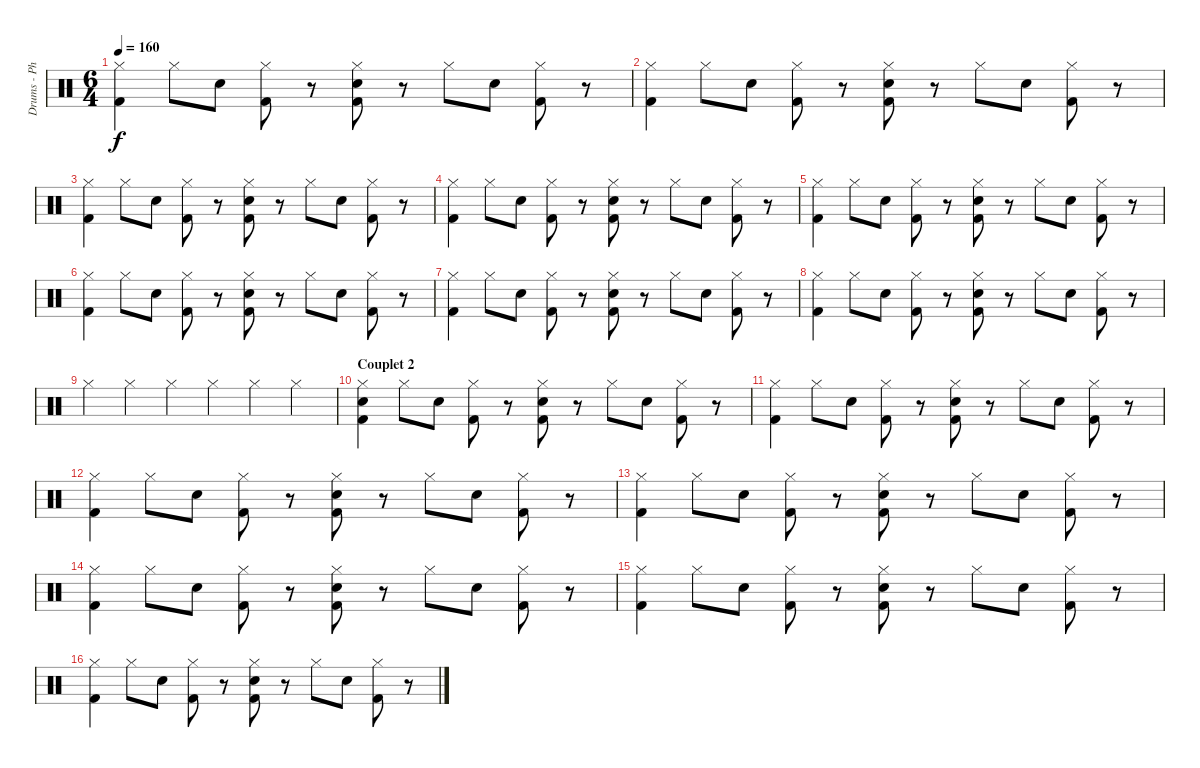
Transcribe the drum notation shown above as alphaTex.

\track ("Drums - Phil Selway" "Drums - Ph") {instrument percussion}
\staff {score}
\articulation defaults
\ts (6 4)
\tempo 160
\clef neutral
\ks c
("Hi-Hat (closed)" "Kick (hit) 2").4{dy f} "Hi-Hat (closed)".8 "Snare (hit) 2".8 ("Hi-Hat (closed)" "Kick (hit) 2").8 r.8 ("Hi-Hat (closed)" "Snare (hit) 2" "Kick (hit) 2").8 r.8 "Hi-Hat (closed)".8 "Snare (hit) 2".8 ("Hi-Hat (closed)" "Kick (hit) 2").8 r.8 |
("Hi-Hat (closed)" "Kick (hit) 2").4 "Hi-Hat (closed)".8 "Snare (hit) 2".8 ("Hi-Hat (closed)" "Kick (hit) 2").8 r.8 ("Hi-Hat (closed)" "Snare (hit) 2" "Kick (hit) 2").8 r.8 "Hi-Hat (closed)".8 "Snare (hit) 2".8 ("Hi-Hat (closed)" "Kick (hit) 2").8 r.8 |
("Hi-Hat (closed)" "Kick (hit) 2").4 "Hi-Hat (closed)".8 "Snare (hit) 2".8 ("Hi-Hat (closed)" "Kick (hit) 2").8 r.8 ("Hi-Hat (closed)" "Snare (hit) 2" "Kick (hit) 2").8 r.8 "Hi-Hat (closed)".8 "Snare (hit) 2".8 ("Hi-Hat (closed)" "Kick (hit) 2").8 r.8 |
("Hi-Hat (closed)" "Kick (hit) 2").4 "Hi-Hat (closed)".8 "Snare (hit) 2".8 ("Hi-Hat (closed)" "Kick (hit) 2").8 r.8 ("Hi-Hat (closed)" "Snare (hit) 2" "Kick (hit) 2").8 r.8 "Hi-Hat (closed)".8 "Snare (hit) 2".8 ("Hi-Hat (closed)" "Kick (hit) 2").8 r.8 |
("Hi-Hat (closed)" "Kick (hit) 2").4 "Hi-Hat (closed)".8 "Snare (hit) 2".8 ("Hi-Hat (closed)" "Kick (hit) 2").8 r.8 ("Hi-Hat (closed)" "Snare (hit) 2" "Kick (hit) 2").8 r.8 "Hi-Hat (closed)".8 "Snare (hit) 2".8 ("Hi-Hat (closed)" "Kick (hit) 2").8 r.8 |
("Hi-Hat (closed)" "Kick (hit) 2").4 "Hi-Hat (closed)".8 "Snare (hit) 2".8 ("Hi-Hat (closed)" "Kick (hit) 2").8 r.8 ("Hi-Hat (closed)" "Snare (hit) 2" "Kick (hit) 2").8 r.8 "Hi-Hat (closed)".8 "Snare (hit) 2".8 ("Hi-Hat (closed)" "Kick (hit) 2").8 r.8 |
("Hi-Hat (closed)" "Kick (hit) 2").4 "Hi-Hat (closed)".8 "Snare (hit) 2".8 ("Hi-Hat (closed)" "Kick (hit) 2").8 r.8 ("Hi-Hat (closed)" "Snare (hit) 2" "Kick (hit) 2").8 r.8 "Hi-Hat (closed)".8 "Snare (hit) 2".8 ("Hi-Hat (closed)" "Kick (hit) 2").8 r.8 |
("Hi-Hat (closed)" "Kick (hit) 2").4 "Hi-Hat (closed)".8 "Snare (hit) 2".8 ("Hi-Hat (closed)" "Kick (hit) 2").8 r.8 ("Hi-Hat (closed)" "Snare (hit) 2" "Kick (hit) 2").8 r.8 "Hi-Hat (closed)".8 "Snare (hit) 2".8 ("Hi-Hat (closed)" "Kick (hit) 2").8 r.8 |
"Hi-Hat (closed)".4 "Hi-Hat (closed)".4 "Hi-Hat (closed)".4 "Hi-Hat (closed)".4 "Hi-Hat (closed)".4 "Hi-Hat (closed)".4 |
\section ("" "Couplet 2")
("Hi-Hat (closed)" "Snare (hit) 2" "Kick (hit) 2").4 "Hi-Hat (closed)".8 "Snare (hit) 2".8 ("Hi-Hat (closed)" "Kick (hit) 2").8 r.8 ("Hi-Hat (closed)" "Snare (hit) 2" "Kick (hit) 2").8 r.8 "Hi-Hat (closed)".8 "Snare (hit) 2".8 ("Hi-Hat (closed)" "Kick (hit) 2").8 r.8 |
("Hi-Hat (closed)" "Kick (hit) 2").4 "Hi-Hat (closed)".8 "Snare (hit) 2".8 ("Hi-Hat (closed)" "Kick (hit) 2").8 r.8 ("Hi-Hat (closed)" "Snare (hit) 2" "Kick (hit) 2").8 r.8 "Hi-Hat (closed)".8 "Snare (hit) 2".8 ("Hi-Hat (closed)" "Kick (hit) 2").8 r.8 |
("Hi-Hat (closed)" "Kick (hit) 2").4 "Hi-Hat (closed)".8 "Snare (hit) 2".8 ("Hi-Hat (closed)" "Kick (hit) 2").8 r.8 ("Hi-Hat (closed)" "Snare (hit) 2" "Kick (hit) 2").8 r.8 "Hi-Hat (closed)".8 "Snare (hit) 2".8 ("Hi-Hat (closed)" "Kick (hit) 2").8 r.8 |
("Hi-Hat (closed)" "Kick (hit) 2").4 "Hi-Hat (closed)".8 "Snare (hit) 2".8 ("Hi-Hat (closed)" "Kick (hit) 2").8 r.8 ("Hi-Hat (closed)" "Snare (hit) 2" "Kick (hit) 2").8 r.8 "Hi-Hat (closed)".8 "Snare (hit) 2".8 ("Hi-Hat (closed)" "Kick (hit) 2").8 r.8 |
("Hi-Hat (closed)" "Kick (hit) 2").4 "Hi-Hat (closed)".8 "Snare (hit) 2".8 ("Hi-Hat (closed)" "Kick (hit) 2").8 r.8 ("Hi-Hat (closed)" "Snare (hit) 2" "Kick (hit) 2").8 r.8 "Hi-Hat (closed)".8 "Snare (hit) 2".8 ("Hi-Hat (closed)" "Kick (hit) 2").8 r.8 |
("Hi-Hat (closed)" "Kick (hit) 2").4 "Hi-Hat (closed)".8 "Snare (hit) 2".8 ("Hi-Hat (closed)" "Kick (hit) 2").8 r.8 ("Hi-Hat (closed)" "Snare (hit) 2" "Kick (hit) 2").8 r.8 "Hi-Hat (closed)".8 "Snare (hit) 2".8 ("Hi-Hat (closed)" "Kick (hit) 2").8 r.8 |
("Hi-Hat (closed)" "Kick (hit) 2").4 "Hi-Hat (closed)".8 "Snare (hit) 2".8 ("Hi-Hat (closed)" "Kick (hit) 2").8 r.8 ("Hi-Hat (closed)" "Snare (hit) 2" "Kick (hit) 2").8 r.8 "Hi-Hat (closed)".8 "Snare (hit) 2".8 ("Hi-Hat (closed)" "Kick (hit) 2").8 r.8
